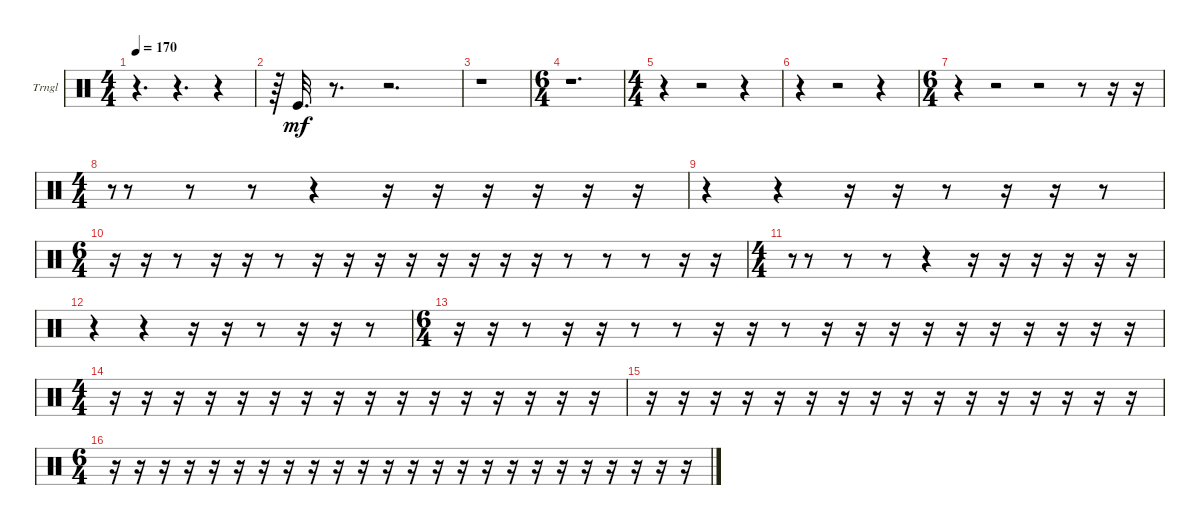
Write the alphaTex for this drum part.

\bracketExtendMode groupsimilarinstruments
\firstSystemTrackNameOrientation horizontal
\otherSystemsTrackNameOrientation horizontal
\track ("Triangle" "Trngl") {instrument percussion}
\staff {score}
\articulation defaults
\ts (4 4)
\tempo 170
\clef neutral
\ks c
r.4{d dy mf} r.4{d} r.4 |
r.64 "Kick (hit)".32{d} r.8{d} r.2{d} |
r.1 |
\ts (6 4)
\beaming (8 6 6)
r.1{d} |
\ts (4 4)
\beaming (8 6 6)
r.4 r.2 r.4 |
r.4 r.2 r.4 |
\ts (6 4)
\beaming (8 6 6)
r.4 r.2 r.2 r.8 r.16 r.16 |
\ts (4 4)
\beaming (8 2 2 2 2)
r.8{gr} r.8 r.8 r.8 r.4 r.16 r.16 r.16 r.16 r.16 r.16 |
r.4 r.4 r.16 r.16 r.8 r.16 r.16 r.8 |
\ts (6 4)
\beaming (8 2 2 2 6)
r.16 r.16 r.8 r.16 r.16 r.8 r.16 r.16 r.16 r.16 r.16 r.16 r.16 r.16 r.8 r.8 r.8 r.16 r.16 |
\ts (4 4)
\beaming (8 2 2 2 2)
r.8{gr} r.8 r.8 r.8 r.4 r.16 r.16 r.16 r.16 r.16 r.16 |
r.4 r.4 r.16 r.16 r.8 r.16 r.16 r.8 |
\ts (6 4)
\beaming (8 2 2 2 6)
r.16 r.16 r.8 r.16 r.16 r.8 r.8 r.16 r.16 r.8 r.16 r.16 r.16 r.16 r.16 r.16 r.16 r.16 r.16 r.16 |
\ts (4 4)
\beaming (8 2 2 2 2)
r.16 r.16 r.16 r.16 r.16 r.16 r.16 r.16 r.16 r.16 r.16 r.16 r.16 r.16 r.16 r.16 |
r.16 r.16 r.16 r.16 r.16 r.16 r.16 r.16 r.16 r.16 r.16 r.16 r.16 r.16 r.16 r.16 |
\ts (6 4)
\beaming (8 2 2 2 6)
r.16 r.16 r.16 r.16 r.16 r.16 r.16 r.16 r.16 r.16 r.16 r.16 r.16 r.16 r.16 r.16 r.16 r.16 r.16 r.16 r.16 r.16 r.16 r.16
